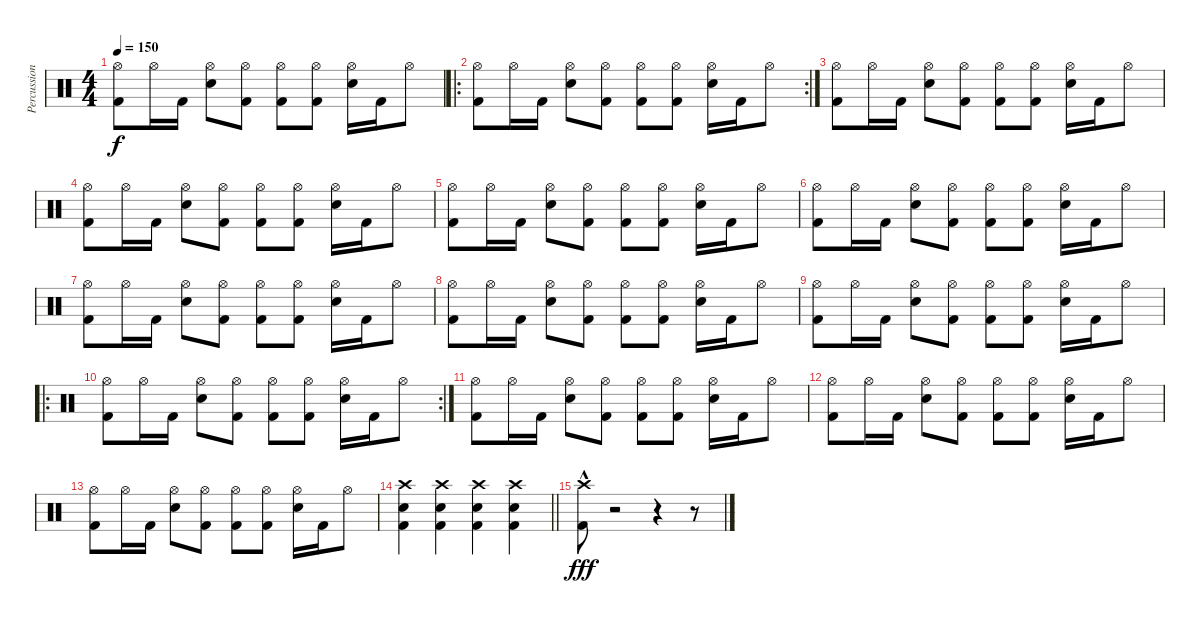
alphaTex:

\track ("Percussion" "Percussion") {instrument percussion}
\staff {score}
\articulation defaults
\ts (4 4)
\tempo 150
\clef neutral
\ks c
("Hi-Hat (open)" "Kick (hit) 2").8{dy f} "Hi-Hat (open)".16 "Kick (hit) 2".16 ("Hi-Hat (open)" "Snare (hit) 2").8 ("Hi-Hat (open)" "Kick (hit) 2").8 ("Hi-Hat (open)" "Kick (hit) 2").8 ("Hi-Hat (open)" "Kick (hit) 2").8 ("Hi-Hat (open)" "Snare (hit) 2").16 "Kick (hit) 2".16 "Hi-Hat (open)".8 |
\ro
\rc 2
("Hi-Hat (open)" "Kick (hit) 2").8 "Hi-Hat (open)".16 "Kick (hit) 2".16 ("Hi-Hat (open)" "Snare (hit) 2").8 ("Hi-Hat (open)" "Kick (hit) 2").8 ("Hi-Hat (open)" "Kick (hit) 2").8 ("Hi-Hat (open)" "Kick (hit) 2").8 ("Hi-Hat (open)" "Snare (hit) 2").16 "Kick (hit) 2".16 "Hi-Hat (open)".8 |
("Hi-Hat (open)" "Kick (hit) 2").8 "Hi-Hat (open)".16 "Kick (hit) 2".16 ("Hi-Hat (open)" "Snare (hit) 2").8 ("Hi-Hat (open)" "Kick (hit) 2").8 ("Hi-Hat (open)" "Kick (hit) 2").8 ("Hi-Hat (open)" "Kick (hit) 2").8 ("Hi-Hat (open)" "Snare (hit) 2").16 "Kick (hit) 2".16 "Hi-Hat (open)".8 |
("Hi-Hat (open)" "Kick (hit) 2").8 "Hi-Hat (open)".16 "Kick (hit) 2".16 ("Hi-Hat (open)" "Snare (hit) 2").8 ("Hi-Hat (open)" "Kick (hit) 2").8 ("Hi-Hat (open)" "Kick (hit) 2").8 ("Hi-Hat (open)" "Kick (hit) 2").8 ("Hi-Hat (open)" "Snare (hit) 2").16 "Kick (hit) 2".16 "Hi-Hat (open)".8 |
("Hi-Hat (open)" "Kick (hit) 2").8 "Hi-Hat (open)".16 "Kick (hit) 2".16 ("Hi-Hat (open)" "Snare (hit) 2").8 ("Hi-Hat (open)" "Kick (hit) 2").8 ("Hi-Hat (open)" "Kick (hit) 2").8 ("Hi-Hat (open)" "Kick (hit) 2").8 ("Hi-Hat (open)" "Snare (hit) 2").16 "Kick (hit) 2".16 "Hi-Hat (open)".8 |
("Hi-Hat (open)" "Kick (hit) 2").8 "Hi-Hat (open)".16 "Kick (hit) 2".16 ("Hi-Hat (open)" "Snare (hit) 2").8 ("Hi-Hat (open)" "Kick (hit) 2").8 ("Hi-Hat (open)" "Kick (hit) 2").8 ("Hi-Hat (open)" "Kick (hit) 2").8 ("Hi-Hat (open)" "Snare (hit) 2").16 "Kick (hit) 2".16 "Hi-Hat (open)".8 |
("Hi-Hat (open)" "Kick (hit) 2").8 "Hi-Hat (open)".16 "Kick (hit) 2".16 ("Hi-Hat (open)" "Snare (hit) 2").8 ("Hi-Hat (open)" "Kick (hit) 2").8 ("Hi-Hat (open)" "Kick (hit) 2").8 ("Hi-Hat (open)" "Kick (hit) 2").8 ("Hi-Hat (open)" "Snare (hit) 2").16 "Kick (hit) 2".16 "Hi-Hat (open)".8 |
("Hi-Hat (open)" "Kick (hit) 2").8 "Hi-Hat (open)".16 "Kick (hit) 2".16 ("Hi-Hat (open)" "Snare (hit) 2").8 ("Hi-Hat (open)" "Kick (hit) 2").8 ("Hi-Hat (open)" "Kick (hit) 2").8 ("Hi-Hat (open)" "Kick (hit) 2").8 ("Hi-Hat (open)" "Snare (hit) 2").16 "Kick (hit) 2".16 "Hi-Hat (open)".8 |
("Hi-Hat (open)" "Kick (hit) 2").8 "Hi-Hat (open)".16 "Kick (hit) 2".16 ("Hi-Hat (open)" "Snare (hit) 2").8 ("Hi-Hat (open)" "Kick (hit) 2").8 ("Hi-Hat (open)" "Kick (hit) 2").8 ("Hi-Hat (open)" "Kick (hit) 2").8 ("Hi-Hat (open)" "Snare (hit) 2").16 "Kick (hit) 2".16 "Hi-Hat (open)".8 |
\ro
\rc 2
("Hi-Hat (open)" "Kick (hit) 2").8 "Hi-Hat (open)".16 "Kick (hit) 2".16 ("Hi-Hat (open)" "Snare (hit) 2").8 ("Hi-Hat (open)" "Kick (hit) 2").8 ("Hi-Hat (open)" "Kick (hit) 2").8 ("Hi-Hat (open)" "Kick (hit) 2").8 ("Hi-Hat (open)" "Snare (hit) 2").16 "Kick (hit) 2".16 "Hi-Hat (open)".8 |
("Hi-Hat (open)" "Kick (hit) 2").8 "Hi-Hat (open)".16 "Kick (hit) 2".16 ("Hi-Hat (open)" "Snare (hit) 2").8 ("Hi-Hat (open)" "Kick (hit) 2").8 ("Hi-Hat (open)" "Kick (hit) 2").8 ("Hi-Hat (open)" "Kick (hit) 2").8 ("Hi-Hat (open)" "Snare (hit) 2").16 "Kick (hit) 2".16 "Hi-Hat (open)".8 |
("Hi-Hat (open)" "Kick (hit) 2").8 "Hi-Hat (open)".16 "Kick (hit) 2".16 ("Hi-Hat (open)" "Snare (hit) 2").8 ("Hi-Hat (open)" "Kick (hit) 2").8 ("Hi-Hat (open)" "Kick (hit) 2").8 ("Hi-Hat (open)" "Kick (hit) 2").8 ("Hi-Hat (open)" "Snare (hit) 2").16 "Kick (hit) 2".16 "Hi-Hat (open)".8 |
("Hi-Hat (open)" "Kick (hit) 2").8 "Hi-Hat (open)".16 "Kick (hit) 2".16 ("Hi-Hat (open)" "Snare (hit) 2").8 ("Hi-Hat (open)" "Kick (hit) 2").8 ("Hi-Hat (open)" "Kick (hit) 2").8 ("Hi-Hat (open)" "Kick (hit) 2").8 ("Hi-Hat (open)" "Snare (hit) 2").16 "Kick (hit) 2".16 "Hi-Hat (open)".8 |
\barLineRight lightlight
("Crash high (hit)" "Snare (hit) 2" "Kick (hit) 2").4 ("Crash high (hit)" "Snare (hit) 2" "Kick (hit) 2").4 ("Crash high (hit)" "Snare (hit) 2" "Kick (hit) 2").4 ("Crash high (hit)" "Snare (hit) 2" "Kick (hit) 2").4 |
("Crash high (hit)"{hac} "Kick (hit) 2").8{dy fff} r.2 r.4 r.8
